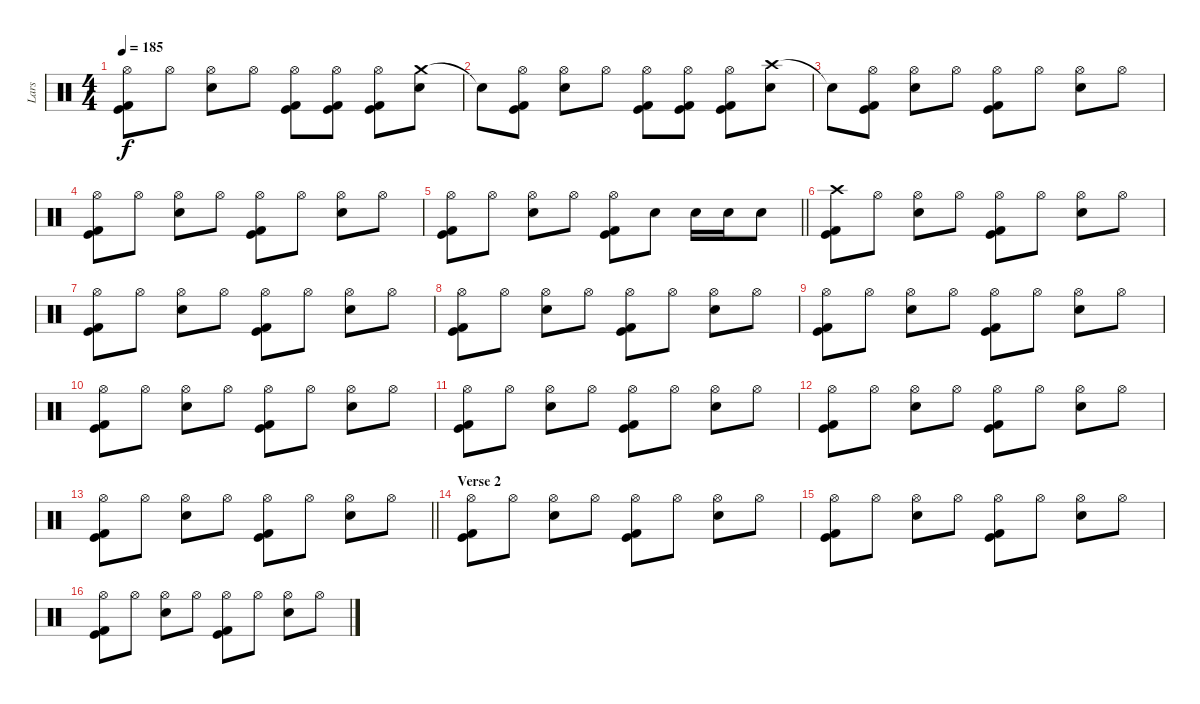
\track ("Lars" "Lars") {instrument percussion}
\staff {score}
\articulation defaults
\ts (4 4)
\tempo 185
\clef neutral
\ks c
("Hi-Hat (open)" "Kick (hit)" "Kick (hit) 2").8{dy f} "Hi-Hat (open)".8 ("Hi-Hat (open)" "Electric Snare (hit)").8 "Hi-Hat (open)".8 ("Hi-Hat (open)" "Kick (hit)" "Kick (hit) 2").8 ("Hi-Hat (open)" "Kick (hit)" "Kick (hit) 2").8 ("Hi-Hat (open)" "Kick (hit)" "Kick (hit) 2").8 ("Crash medium (hit)" "Electric Snare (hit)").8 |
"Snare (hit)"{t}.8 ("Hi-Hat (open)" "Kick (hit)" "Kick (hit) 2").8 ("Hi-Hat (open)" "Electric Snare (hit)").8 "Hi-Hat (open)".8 ("Hi-Hat (open)" "Kick (hit)" "Kick (hit) 2").8 ("Hi-Hat (open)" "Kick (hit)" "Kick (hit) 2").8 ("Hi-Hat (open)" "Kick (hit)" "Kick (hit) 2").8 ("Crash high (hit)" "Electric Snare (hit)").8 |
"Snare (hit)"{t}.8 ("Hi-Hat (open)" "Kick (hit)" "Kick (hit) 2").8 ("Hi-Hat (open)" "Electric Snare (hit)").8 "Hi-Hat (open)".8 ("Hi-Hat (open)" "Kick (hit)" "Kick (hit) 2").8 "Hi-Hat (open)".8 ("Hi-Hat (open)" "Electric Snare (hit)").8 "Hi-Hat (open)".8 |
("Hi-Hat (open)" "Kick (hit)" "Kick (hit) 2").8 "Hi-Hat (open)".8 ("Hi-Hat (open)" "Electric Snare (hit)").8 "Hi-Hat (open)".8 ("Hi-Hat (open)" "Kick (hit)" "Kick (hit) 2").8 "Hi-Hat (open)".8 ("Hi-Hat (open)" "Electric Snare (hit)").8 "Hi-Hat (open)".8 |
\barLineRight lightlight
("Hi-Hat (open)" "Kick (hit)" "Kick (hit) 2").8 "Hi-Hat (open)".8 ("Hi-Hat (open)" "Electric Snare (hit)").8 "Hi-Hat (open)".8 ("Hi-Hat (open)" "Kick (hit)" "Kick (hit) 2").8 "Electric Snare (hit)".8 "Electric Snare (hit)".16 "Electric Snare (hit)".16 "Electric Snare (hit)".8 |
\section ("" "")
("Crash high (hit)" "Kick (hit)" "Kick (hit) 2").8 "Hi-Hat (open)".8 ("Hi-Hat (open)" "Electric Snare (hit)").8 "Hi-Hat (open)".8 ("Hi-Hat (open)" "Kick (hit)" "Kick (hit) 2").8 "Hi-Hat (open)".8 ("Hi-Hat (open)" "Electric Snare (hit)").8 "Hi-Hat (open)".8 |
("Hi-Hat (open)" "Kick (hit)" "Kick (hit) 2").8 "Hi-Hat (open)".8 ("Hi-Hat (open)" "Electric Snare (hit)").8 "Hi-Hat (open)".8 ("Hi-Hat (open)" "Kick (hit)" "Kick (hit) 2").8 "Hi-Hat (open)".8 ("Hi-Hat (open)" "Electric Snare (hit)").8 "Hi-Hat (open)".8 |
("Hi-Hat (open)" "Kick (hit)" "Kick (hit) 2").8 "Hi-Hat (open)".8 ("Hi-Hat (open)" "Electric Snare (hit)").8 "Hi-Hat (open)".8 ("Hi-Hat (open)" "Kick (hit)" "Kick (hit) 2").8 "Hi-Hat (open)".8 ("Hi-Hat (open)" "Electric Snare (hit)").8 "Hi-Hat (open)".8 |
("Hi-Hat (open)" "Kick (hit)" "Kick (hit) 2").8 "Hi-Hat (open)".8 ("Hi-Hat (open)" "Electric Snare (hit)").8 "Hi-Hat (open)".8 ("Hi-Hat (open)" "Kick (hit)" "Kick (hit) 2").8 "Hi-Hat (open)".8 ("Hi-Hat (open)" "Electric Snare (hit)").8 "Hi-Hat (open)".8 |
("Hi-Hat (open)" "Kick (hit)" "Kick (hit) 2").8 "Hi-Hat (open)".8 ("Hi-Hat (open)" "Electric Snare (hit)").8 "Hi-Hat (open)".8 ("Hi-Hat (open)" "Kick (hit)" "Kick (hit) 2").8 "Hi-Hat (open)".8 ("Hi-Hat (open)" "Electric Snare (hit)").8 "Hi-Hat (open)".8 |
("Hi-Hat (open)" "Kick (hit)" "Kick (hit) 2").8 "Hi-Hat (open)".8 ("Hi-Hat (open)" "Electric Snare (hit)").8 "Hi-Hat (open)".8 ("Hi-Hat (open)" "Kick (hit)" "Kick (hit) 2").8 "Hi-Hat (open)".8 ("Hi-Hat (open)" "Electric Snare (hit)").8 "Hi-Hat (open)".8 |
("Hi-Hat (open)" "Kick (hit)" "Kick (hit) 2").8 "Hi-Hat (open)".8 ("Hi-Hat (open)" "Electric Snare (hit)").8 "Hi-Hat (open)".8 ("Hi-Hat (open)" "Kick (hit)" "Kick (hit) 2").8 "Hi-Hat (open)".8 ("Hi-Hat (open)" "Electric Snare (hit)").8 "Hi-Hat (open)".8 |
\barLineRight lightlight
("Hi-Hat (open)" "Kick (hit)" "Kick (hit) 2").8 "Hi-Hat (open)".8 ("Hi-Hat (open)" "Electric Snare (hit)").8 "Hi-Hat (open)".8 ("Hi-Hat (open)" "Kick (hit)" "Kick (hit) 2").8 "Hi-Hat (open)".8 ("Hi-Hat (open)" "Electric Snare (hit)").8 "Hi-Hat (open)".8 |
\section ("" "Verse 2")
("Hi-Hat (open)" "Kick (hit)" "Kick (hit) 2").8 "Hi-Hat (open)".8 ("Hi-Hat (open)" "Electric Snare (hit)").8 "Hi-Hat (open)".8 ("Hi-Hat (open)" "Kick (hit)" "Kick (hit) 2").8 "Hi-Hat (open)".8 ("Hi-Hat (open)" "Electric Snare (hit)").8 "Hi-Hat (open)".8 |
("Hi-Hat (open)" "Kick (hit)" "Kick (hit) 2").8 "Hi-Hat (open)".8 ("Hi-Hat (open)" "Electric Snare (hit)").8 "Hi-Hat (open)".8 ("Hi-Hat (open)" "Kick (hit)" "Kick (hit) 2").8 "Hi-Hat (open)".8 ("Hi-Hat (open)" "Electric Snare (hit)").8 "Hi-Hat (open)".8 |
("Hi-Hat (open)" "Kick (hit)" "Kick (hit) 2").8 "Hi-Hat (open)".8 ("Hi-Hat (open)" "Electric Snare (hit)").8 "Hi-Hat (open)".8 ("Hi-Hat (open)" "Kick (hit)" "Kick (hit) 2").8 "Hi-Hat (open)".8 ("Hi-Hat (open)" "Electric Snare (hit)").8 "Hi-Hat (open)".8
